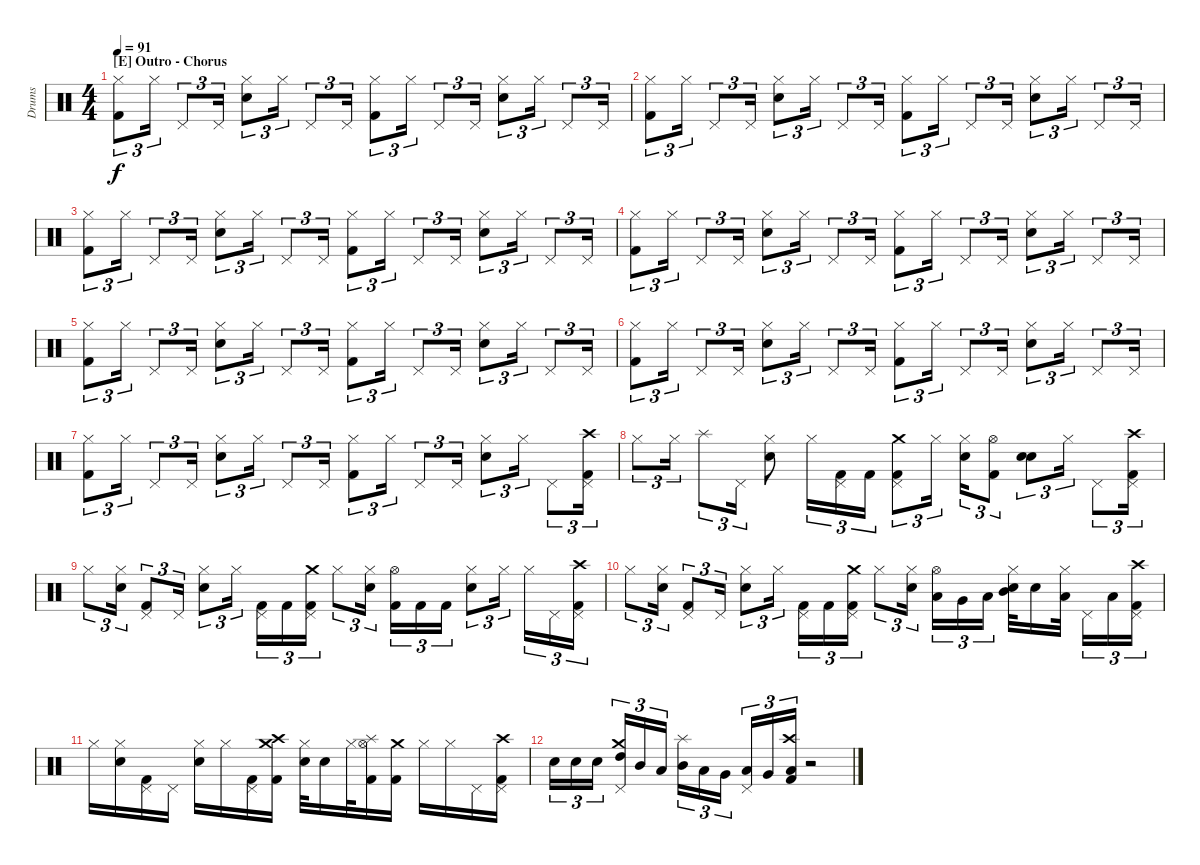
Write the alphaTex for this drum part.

\track ("Drums" "Drums") {instrument percussion}
\staff {score}
\articulation defaults
\ts (4 4)
\section ("" "[E] Outro - Chorus")
\tempo 91
\clef neutral
\ks c
("Hi-Hat (closed)" "Kick (hit) 2").8{tu (3 2) dy f} "Hi-Hat (closed)".16{tu (3 2)} "Pedal Hi-Hat (hit)".8{tu (3 2)} "Pedal Hi-Hat (hit)".16{tu (3 2)} ("Snare (hit) 2" "Hi-Hat (closed)").8{tu (3 2)} "Hi-Hat (closed)".16{tu (3 2)} "Pedal Hi-Hat (hit)".8{tu (3 2)} "Pedal Hi-Hat (hit)".16{tu (3 2)} ("Kick (hit) 2" "Hi-Hat (closed)").8{tu (3 2)} "Hi-Hat (closed)".16{tu (3 2)} "Pedal Hi-Hat (hit)".8{tu (3 2)} "Pedal Hi-Hat (hit)".16{tu (3 2)} ("Snare (hit) 2" "Hi-Hat (closed)").8{tu (3 2)} "Hi-Hat (closed)".16{tu (3 2)} "Pedal Hi-Hat (hit)".8{tu (3 2)} "Pedal Hi-Hat (hit)".16{tu (3 2)} |
("Hi-Hat (closed)" "Kick (hit) 2").8{tu (3 2)} "Hi-Hat (closed)".16{tu (3 2)} "Pedal Hi-Hat (hit)".8{tu (3 2)} "Pedal Hi-Hat (hit)".16{tu (3 2)} ("Snare (hit) 2" "Hi-Hat (closed)").8{tu (3 2)} "Hi-Hat (closed)".16{tu (3 2)} "Pedal Hi-Hat (hit)".8{tu (3 2)} "Pedal Hi-Hat (hit)".16{tu (3 2)} ("Kick (hit) 2" "Hi-Hat (closed)").8{tu (3 2)} "Hi-Hat (closed)".16{tu (3 2)} "Pedal Hi-Hat (hit)".8{tu (3 2)} "Pedal Hi-Hat (hit)".16{tu (3 2)} ("Snare (hit) 2" "Hi-Hat (closed)").8{tu (3 2)} "Hi-Hat (closed)".16{tu (3 2)} "Pedal Hi-Hat (hit)".8{tu (3 2)} "Pedal Hi-Hat (hit)".16{tu (3 2)} |
("Hi-Hat (closed)" "Kick (hit) 2").8{tu (3 2)} "Hi-Hat (closed)".16{tu (3 2)} "Pedal Hi-Hat (hit)".8{tu (3 2)} "Pedal Hi-Hat (hit)".16{tu (3 2)} ("Snare (hit) 2" "Hi-Hat (closed)").8{tu (3 2)} "Hi-Hat (closed)".16{tu (3 2)} "Pedal Hi-Hat (hit)".8{tu (3 2)} "Pedal Hi-Hat (hit)".16{tu (3 2)} ("Kick (hit) 2" "Hi-Hat (closed)").8{tu (3 2)} "Hi-Hat (closed)".16{tu (3 2)} "Pedal Hi-Hat (hit)".8{tu (3 2)} "Pedal Hi-Hat (hit)".16{tu (3 2)} ("Snare (hit) 2" "Hi-Hat (closed)").8{tu (3 2)} "Hi-Hat (closed)".16{tu (3 2)} "Pedal Hi-Hat (hit)".8{tu (3 2)} "Pedal Hi-Hat (hit)".16{tu (3 2)} |
("Hi-Hat (closed)" "Kick (hit) 2").8{tu (3 2)} "Hi-Hat (closed)".16{tu (3 2)} "Pedal Hi-Hat (hit)".8{tu (3 2)} "Pedal Hi-Hat (hit)".16{tu (3 2)} ("Snare (hit) 2" "Hi-Hat (closed)").8{tu (3 2)} "Hi-Hat (closed)".16{tu (3 2)} "Pedal Hi-Hat (hit)".8{tu (3 2)} "Pedal Hi-Hat (hit)".16{tu (3 2)} ("Kick (hit) 2" "Hi-Hat (closed)").8{tu (3 2)} "Hi-Hat (closed)".16{tu (3 2)} "Pedal Hi-Hat (hit)".8{tu (3 2)} "Pedal Hi-Hat (hit)".16{tu (3 2)} ("Snare (hit) 2" "Hi-Hat (closed)").8{tu (3 2)} "Hi-Hat (closed)".16{tu (3 2)} "Pedal Hi-Hat (hit)".8{tu (3 2)} "Pedal Hi-Hat (hit)".16{tu (3 2)} |
("Hi-Hat (closed)" "Kick (hit) 2").8{tu (3 2)} "Hi-Hat (closed)".16{tu (3 2)} "Pedal Hi-Hat (hit)".8{tu (3 2)} "Pedal Hi-Hat (hit)".16{tu (3 2)} ("Snare (hit) 2" "Hi-Hat (closed)").8{tu (3 2)} "Hi-Hat (closed)".16{tu (3 2)} "Pedal Hi-Hat (hit)".8{tu (3 2)} "Pedal Hi-Hat (hit)".16{tu (3 2)} ("Kick (hit) 2" "Hi-Hat (closed)").8{tu (3 2)} "Hi-Hat (closed)".16{tu (3 2)} "Pedal Hi-Hat (hit)".8{tu (3 2)} "Pedal Hi-Hat (hit)".16{tu (3 2)} ("Snare (hit) 2" "Hi-Hat (closed)").8{tu (3 2)} "Hi-Hat (closed)".16{tu (3 2)} "Pedal Hi-Hat (hit)".8{tu (3 2)} "Pedal Hi-Hat (hit)".16{tu (3 2)} |
("Hi-Hat (closed)" "Kick (hit) 2").8{tu (3 2)} "Hi-Hat (closed)".16{tu (3 2)} "Pedal Hi-Hat (hit)".8{tu (3 2)} "Pedal Hi-Hat (hit)".16{tu (3 2)} ("Snare (hit) 2" "Hi-Hat (closed)").8{tu (3 2)} "Hi-Hat (closed)".16{tu (3 2)} "Pedal Hi-Hat (hit)".8{tu (3 2)} "Pedal Hi-Hat (hit)".16{tu (3 2)} ("Kick (hit) 2" "Hi-Hat (closed)").8{tu (3 2)} "Hi-Hat (closed)".16{tu (3 2)} "Pedal Hi-Hat (hit)".8{tu (3 2)} "Pedal Hi-Hat (hit)".16{tu (3 2)} ("Snare (hit) 2" "Hi-Hat (closed)").8{tu (3 2)} "Hi-Hat (closed)".16{tu (3 2)} "Pedal Hi-Hat (hit)".8{tu (3 2)} "Pedal Hi-Hat (hit)".16{tu (3 2)} |
("Hi-Hat (closed)" "Kick (hit) 2").8{tu (3 2)} "Hi-Hat (closed)".16{tu (3 2)} "Pedal Hi-Hat (hit)".8{tu (3 2)} "Pedal Hi-Hat (hit)".16{tu (3 2)} ("Snare (hit) 2" "Hi-Hat (closed)").8{tu (3 2)} "Hi-Hat (closed)".16{tu (3 2)} "Pedal Hi-Hat (hit)".8{tu (3 2)} "Pedal Hi-Hat (hit)".16{tu (3 2)} ("Kick (hit) 2" "Hi-Hat (closed)").8{tu (3 2)} "Hi-Hat (closed)".16{tu (3 2)} "Pedal Hi-Hat (hit)".8{tu (3 2)} "Pedal Hi-Hat (hit)".16{tu (3 2)} ("Snare (hit) 2" "Hi-Hat (closed)").8{tu (3 2)} "Hi-Hat (closed)".16{tu (3 2)} "Pedal Hi-Hat (hit)".8{tu (3 2)} ("Crash high (hit)" "Kick (hit) 2" "Pedal Hi-Hat (hit)").16{tu (3 2)} |
"Hi-Hat (closed)".8{tu (3 2)} "Hi-Hat (closed)".16{tu (3 2)} "Splash (hit)".8{tu (3 2)} "Pedal Hi-Hat (hit)".16{tu (3 2)} ("Hi-Hat (closed)" "Snare (hit) 2").8 "Hi-Hat (closed)".16{tu (3 2)} ("Pedal Hi-Hat (hit)" "Kick (hit) 2").16{tu (3 2)} "Kick (hit) 2".16{tu (3 2)} ("Pedal Hi-Hat (hit)" "Crash medium (hit)" "Kick (hit) 2").8{tu (3 2)} "Hi-Hat (closed)".16{tu (3 2)} ("Snare (hit) 2" "Hi-Hat (closed)").16{tu (3 2)} ("Hi-Hat (open)" "Kick (hit) 2").8{tu (3 2)} ("Snare (hit) 2" "Snare (hit) 2").8{tu (3 2)} "Hi-Hat (closed)".16{tu (3 2)} "Pedal Hi-Hat (hit)".8{tu (3 2)} ("Crash high (hit)" "Kick (hit) 2" "Pedal Hi-Hat (hit)").16{tu (3 2)} |
"Hi-Hat (closed)".8{tu (3 2)} ("Snare (hit) 2" "Hi-Hat (closed)").16{tu (3 2)} ("Pedal Hi-Hat (hit)" "Kick (hit) 2").8{tu (3 2)} "Pedal Hi-Hat (hit)".16{tu (3 2)} ("Hi-Hat (closed)" "Snare (hit) 2").8{tu (3 2)} "Hi-Hat (closed)".16{tu (3 2)} ("Pedal Hi-Hat (hit)" "Kick (hit) 2").16{tu (3 2)} "Kick (hit) 2".16{tu (3 2)} ("Pedal Hi-Hat (hit)" "Crash medium (hit)" "Kick (hit) 2").16{tu (3 2)} "Hi-Hat (closed)".8{tu (3 2)} ("Snare (hit) 2" "Hi-Hat (closed)").16{tu (3 2)} ("Kick (hit) 2" "Hi-Hat (open)").16{tu (3 2)} "Kick (hit) 2".16{tu (3 2)} "Kick (hit) 2".16{tu (3 2)} ("Snare (hit) 2" "Hi-Hat (closed)").8{tu (3 2)} "Hi-Hat (closed)".16{tu (3 2)} "Hi-Hat (closed)".16{tu (3 2)} "Pedal Hi-Hat (hit)".16{tu (3 2)} ("Crash high (hit)" "Kick (hit) 2" "Pedal Hi-Hat (hit)").16{tu (3 2)} |
"Hi-Hat (closed)".8{tu (3 2)} ("Snare (hit) 2" "Hi-Hat (closed)").16{tu (3 2)} ("Pedal Hi-Hat (hit)" "Kick (hit) 2").8{tu (3 2)} "Pedal Hi-Hat (hit)".16{tu (3 2)} ("Hi-Hat (closed)" "Snare (hit) 2").8{tu (3 2)} "Hi-Hat (closed)".16{tu (3 2)} ("Pedal Hi-Hat (hit)" "Kick (hit) 2").16{tu (3 2)} "Kick (hit) 2".16{tu (3 2)} ("Pedal Hi-Hat (hit)" "Crash medium (hit)" "Kick (hit) 2").16{tu (3 2)} "Hi-Hat (closed)".8{tu (3 2)} ("Snare (hit) 2" "Hi-Hat (closed)").16{tu (3 2)} ("Low Tom (hit)" "Hi-Hat (open)").16{tu (3 2)} "Very Low Tom (hit)".16{tu (3 2)} "Low Floor Tom (hit)".16{tu (3 2)} ("Mid Tom (hit)" "Snare (hit) 2" "Hi-Hat (closed)").32 "Snare (hit) 2".16 ("Low Tom (hit)" "Hi-Hat (closed)").32 "Pedal Hi-Hat (hit)".16{tu (3 2)} "Low Floor Tom (hit)".16{tu (3 2)} ("Crash high (hit)" "Kick (hit) 2" "Pedal Hi-Hat (hit)").16{tu (3 2)} |
"Hi-Hat (closed)".16 ("Snare (hit) 2" "Hi-Hat (closed)").16 ("Pedal Hi-Hat (hit)" "Kick (hit) 2").16 "Pedal Hi-Hat (hit)".16 ("Hi-Hat (closed)" "Snare (hit) 2").16 "Hi-Hat (closed)".16 ("Pedal Hi-Hat (hit)" "Kick (hit) 2").16 ("Crash high (hit)" "Crash medium (hit)" "Kick (hit) 2").16 ("Snare (hit) 2" "Hi-Hat (closed)").32 "Snare (hit) 2".16 "Hi-Hat (closed)".32 ("Splash (hit)" "Kick (hit) 2" "Hi-Hat (open)").16 ("Crash medium (hit)" "Kick (hit) 2").16 "Hi-Hat (closed)".16 "Hi-Hat (closed)".16 "Pedal Hi-Hat (hit)".16 ("Crash high (hit)" "Kick (hit) 2" "Pedal Hi-Hat (hit)").16 |
"Snare (hit) 2".16{tu (3 2)} "Snare (hit) 2".16{tu (3 2)} "Snare (hit) 2".16{tu (3 2)} ("Pedal Hi-Hat (hit)" "Crash medium (hit)" "High Tom (hit)").16{tu (3 2)} "Mid Tom (hit)".16{tu (3 2)} "Low Tom (hit)".16{tu (3 2)} ("Splash (hit)" "Mid Tom (hit)").16{tu (3 2)} "Low Tom (hit)".16{tu (3 2)} "Very Low Tom (hit)".16{tu (3 2)} ("Pedal Hi-Hat (hit)" "Low Tom (hit)").16{tu (3 2)} "Very Low Tom (hit)".16{tu (3 2)} ("Crash high (hit)" "Kick (hit) 2" "Low Floor Tom (hit)").16{tu (3 2)} r.2
